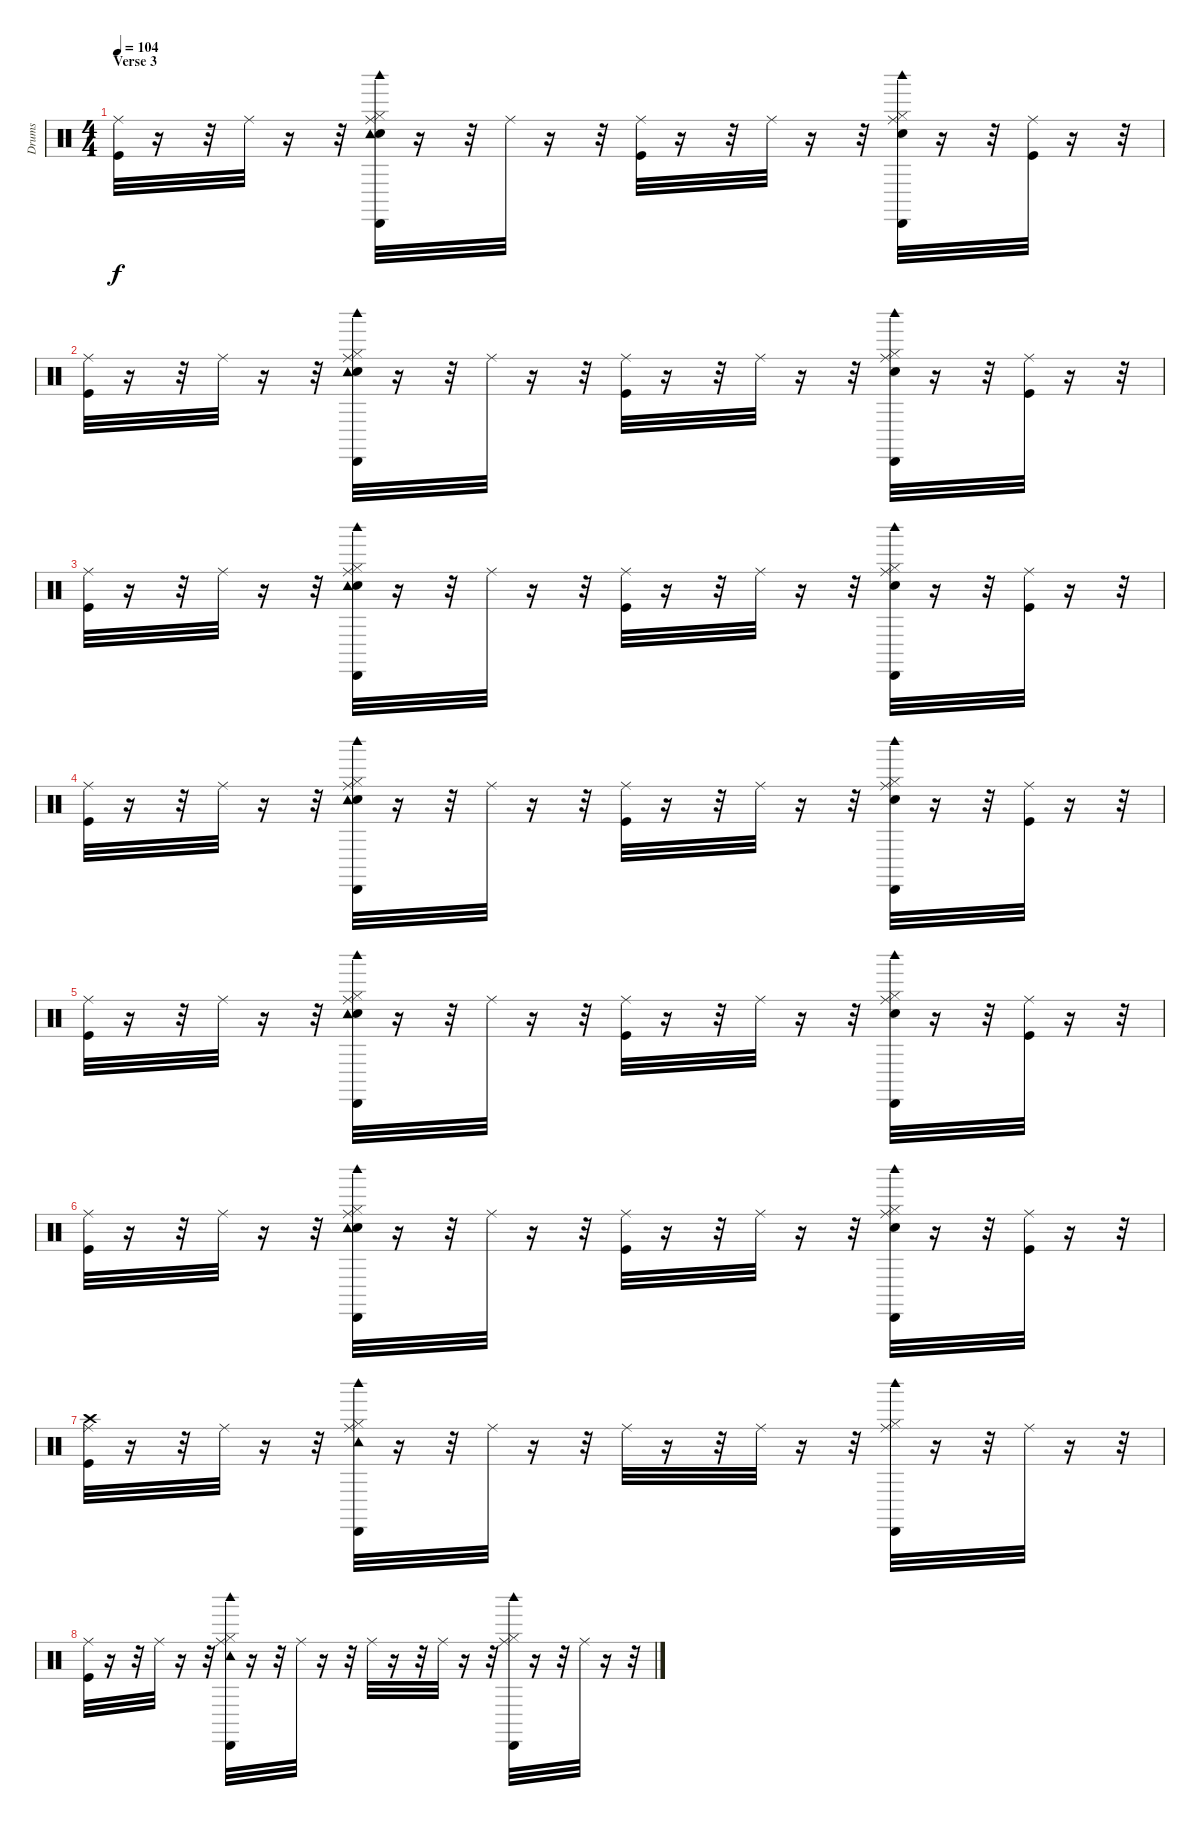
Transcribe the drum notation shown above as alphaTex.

\track ("Drums" "Drums") {instrument percussion}
\staff {score}
\articulation defaults
\ts (4 4)
\section ("" "Verse 3")
\tempo 104
\clef neutral
\ks c
("Kick (hit)" "Ride (middle)").32{dy f} r.16 r.32 "Ride (middle)".32 r.16 r.32 ("Snare (hit) 2" "Hi-Hat (closed)" "Ride (middle)" "Tambourine (hit)" "Cabasa (hit)" "Woodblock high (hit)").32 r.16 r.32 "Ride (middle)".32 r.16 r.32 ("Kick (hit)" "Ride (middle)").32 r.16 r.32 "Ride (middle)".32 r.16 r.32 ("Snare (hit) 2" "Hi-Hat (closed)" "Ride (middle)" "Cabasa (hit)" "Woodblock high (hit)").32 r.16 r.32 ("Kick (hit)" "Ride (middle)").32 r.16 r.32 |
("Kick (hit)" "Ride (middle)").32 r.16 r.32 "Ride (middle)".32 r.16 r.32 ("Snare (hit) 2" "Hi-Hat (closed)" "Ride (middle)" "Tambourine (hit)" "Cabasa (hit)" "Woodblock high (hit)").32 r.16 r.32 "Ride (middle)".32 r.16 r.32 ("Kick (hit)" "Ride (middle)").32 r.16 r.32 "Ride (middle)".32 r.16 r.32 ("Snare (hit) 2" "Hi-Hat (closed)" "Ride (middle)" "Cabasa (hit)" "Woodblock high (hit)").32 r.16 r.32 ("Kick (hit)" "Ride (middle)").32 r.16 r.32 |
("Kick (hit)" "Ride (middle)").32 r.16 r.32 "Ride (middle)".32 r.16 r.32 ("Snare (hit) 2" "Hi-Hat (closed)" "Ride (middle)" "Tambourine (hit)" "Cabasa (hit)" "Woodblock high (hit)").32 r.16 r.32 "Ride (middle)".32 r.16 r.32 ("Kick (hit)" "Ride (middle)").32 r.16 r.32 "Ride (middle)".32 r.16 r.32 ("Snare (hit) 2" "Hi-Hat (closed)" "Ride (middle)" "Cabasa (hit)" "Woodblock high (hit)").32 r.16 r.32 ("Kick (hit)" "Ride (middle)").32 r.16 r.32 |
("Kick (hit)" "Ride (middle)").32 r.16 r.32 "Ride (middle)".32 r.16 r.32 ("Snare (hit) 2" "Hi-Hat (closed)" "Ride (middle)" "Tambourine (hit)" "Cabasa (hit)" "Woodblock high (hit)").32 r.16 r.32 "Ride (middle)".32 r.16 r.32 ("Kick (hit)" "Ride (middle)").32 r.16 r.32 "Ride (middle)".32 r.16 r.32 ("Snare (hit) 2" "Hi-Hat (closed)" "Ride (middle)" "Cabasa (hit)" "Woodblock high (hit)").32 r.16 r.32 ("Kick (hit)" "Ride (middle)").32 r.16 r.32 |
("Kick (hit)" "Ride (middle)").32 r.16 r.32 "Ride (middle)".32 r.16 r.32 ("Snare (hit) 2" "Hi-Hat (closed)" "Ride (middle)" "Tambourine (hit)" "Cabasa (hit)" "Woodblock high (hit)").32 r.16 r.32 "Ride (middle)".32 r.16 r.32 ("Kick (hit)" "Ride (middle)").32 r.16 r.32 "Ride (middle)".32 r.16 r.32 ("Snare (hit) 2" "Hi-Hat (closed)" "Ride (middle)" "Cabasa (hit)" "Woodblock high (hit)").32 r.16 r.32 ("Kick (hit)" "Ride (middle)").32 r.16 r.32 |
("Kick (hit)" "Ride (middle)").32 r.16 r.32 "Ride (middle)".32 r.16 r.32 ("Snare (hit) 2" "Hi-Hat (closed)" "Ride (middle)" "Tambourine (hit)" "Cabasa (hit)" "Woodblock high (hit)").32 r.16 r.32 "Ride (middle)".32 r.16 r.32 ("Kick (hit)" "Ride (middle)").32 r.16 r.32 "Ride (middle)".32 r.16 r.32 ("Snare (hit) 2" "Hi-Hat (closed)" "Ride (middle)" "Cabasa (hit)" "Woodblock high (hit)").32 r.16 r.32 ("Kick (hit)" "Ride (middle)").32 r.16 r.32 |
("Kick (hit)" "Crash high (hit)" "Ride (middle)").32 r.16 r.32 "Ride (middle)".32 r.16 r.32 ("Hi-Hat (closed)" "Ride (middle)" "Tambourine (hit)" "Cabasa (hit)" "Woodblock high (hit)").32 r.16 r.32 "Ride (middle)".32 r.16 r.32 "Ride (middle)".32 r.16 r.32 "Ride (middle)".32 r.16 r.32 ("Hi-Hat (closed)" "Ride (middle)" "Cabasa (hit)" "Woodblock high (hit)").32 r.16 r.32 "Ride (middle)".32 r.16 r.32 |
("Kick (hit)" "Ride (middle)").32 r.16 r.32 "Ride (middle)".32 r.16 r.32 ("Hi-Hat (closed)" "Ride (middle)" "Tambourine (hit)" "Cabasa (hit)" "Woodblock high (hit)").32 r.16 r.32 "Ride (middle)".32 r.16 r.32 "Ride (middle)".32 r.16 r.32 "Ride (middle)".32 r.16 r.32 ("Hi-Hat (closed)" "Ride (middle)" "Cabasa (hit)" "Woodblock high (hit)").32 r.16 r.32 "Ride (middle)".32 r.16 r.32
